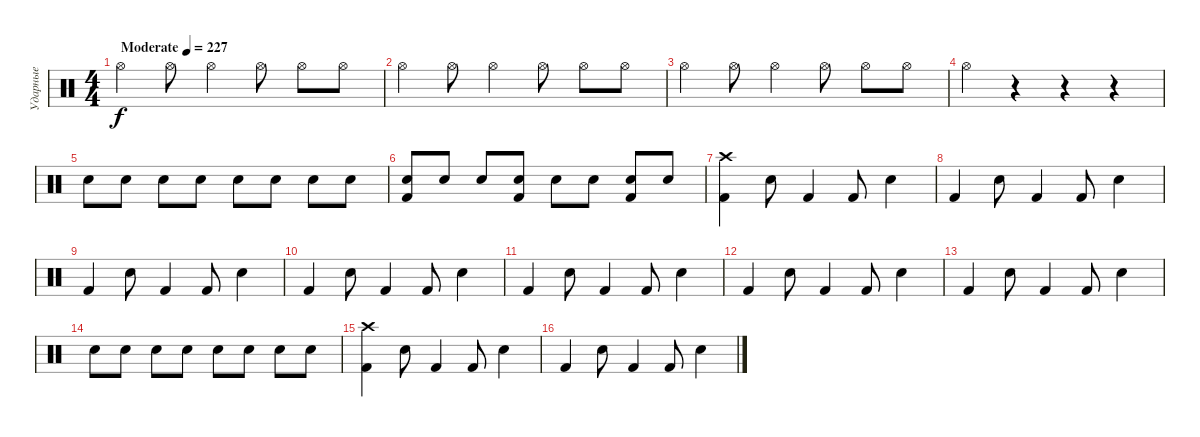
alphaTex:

\track ("Ударные" "Ударные") {instrument percussion}
\staff {score}
\articulation defaults
\ts (4 4)
\tempo (227 "Moderate")
\clef neutral
\ks c "Hi-Hat (open)".4{dy f} "Hi-Hat (open)".8 "Hi-Hat (open)".4 "Hi-Hat (open)".8 "Hi-Hat (open)".8 "Hi-Hat (open)".8
|
"Hi-Hat (open)".4 "Hi-Hat (open)".8 "Hi-Hat (open)".4 "Hi-Hat (open)".8 "Hi-Hat (open)".8 "Hi-Hat (open)".8 |
"Hi-Hat (open)".4 "Hi-Hat (open)".8 "Hi-Hat (open)".4 "Hi-Hat (open)".8 "Hi-Hat (open)".8 "Hi-Hat (open)".8 |
"Hi-Hat (open)".4 r.4 r.4 r.4 |
"Snare (hit) 2".8 "Snare (hit) 2".8 "Snare (hit) 2".8 "Snare (hit) 2".8 "Snare (hit) 2".8 "Snare (hit) 2".8 "Snare (hit) 2".8 "Snare (hit) 2".8 |
("Kick (hit) 2" "Snare (hit) 2").8 "Snare (hit) 2".8 "Snare (hit) 2".8 ("Kick (hit) 2" "Snare (hit) 2").8 "Snare (hit) 2".8 "Snare (hit) 2".8 ("Kick (hit) 2" "Snare (hit) 2").8 "Snare (hit) 2".8 |
("Kick (hit) 2" "Crash high (hit)").4 "Snare (hit) 2".8 "Kick (hit) 2".4 "Kick (hit) 2".8 "Snare (hit) 2".4 |
"Kick (hit) 2".4 "Snare (hit) 2".8 "Kick (hit) 2".4 "Kick (hit) 2".8 "Snare (hit) 2".4 |
"Kick (hit) 2".4 "Snare (hit) 2".8 "Kick (hit) 2".4 "Kick (hit) 2".8 "Snare (hit) 2".4 |
"Kick (hit) 2".4 "Snare (hit) 2".8 "Kick (hit) 2".4 "Kick (hit) 2".8 "Snare (hit) 2".4 |
"Kick (hit) 2".4 "Snare (hit) 2".8 "Kick (hit) 2".4 "Kick (hit) 2".8 "Snare (hit) 2".4 |
"Kick (hit) 2".4 "Snare (hit) 2".8 "Kick (hit) 2".4 "Kick (hit) 2".8 "Snare (hit) 2".4 |
"Kick (hit) 2".4 "Snare (hit) 2".8 "Kick (hit) 2".4 "Kick (hit) 2".8 "Snare (hit) 2".4 |
"Snare (hit) 2".8 "Snare (hit) 2".8 "Snare (hit) 2".8 "Snare (hit) 2".8 "Snare (hit) 2".8 "Snare (hit) 2".8 "Snare (hit) 2".8 "Snare (hit) 2".8 |
("Kick (hit) 2" "Crash high (hit)").4 "Snare (hit) 2".8 "Kick (hit) 2".4 "Kick (hit) 2".8 "Snare (hit) 2".4 |
"Kick (hit) 2".4 "Snare (hit) 2".8 "Kick (hit) 2".4 "Kick (hit) 2".8 "Snare (hit) 2".4
